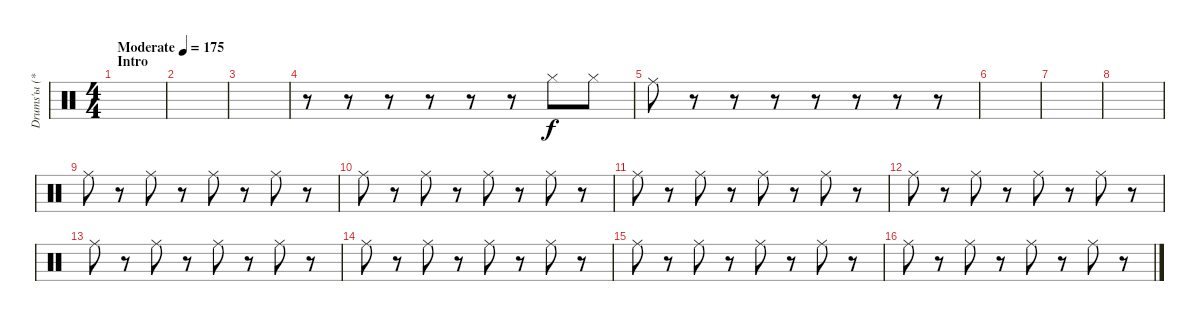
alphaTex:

\track ("Drums'ы (***)" "Drums'ы (*") {instrument percussion}
\staff {score}
\articulation defaults
\ts (4 4)
\section ("" "Intro")
\tempo (175 "Moderate")
\clef neutral
\ks c
|
|
|
r.8 r.8 r.8 r.8 r.8 r.8 "Hi-Hat (closed)".8 "Hi-Hat (closed)".8 |
"Ride (middle)".8 r.8 r.8 r.8 r.8 r.8 r.8 r.8 |
|
|
|
"Ride (middle)".8 r.8 "Ride (middle)".8 r.8 "Ride (middle)".8 r.8 "Ride (middle)".8 r.8 |
"Ride (middle)".8 r.8 "Ride (middle)".8 r.8 "Ride (middle)".8 r.8 "Ride (middle)".8 r.8 |
"Ride (middle)".8 r.8 "Ride (middle)".8 r.8 "Ride (middle)".8 r.8 "Ride (middle)".8 r.8 |
"Ride (middle)".8 r.8 "Ride (middle)".8 r.8 "Ride (middle)".8 r.8 "Ride (middle)".8 r.8 |
"Ride (middle)".8 r.8 "Ride (middle)".8 r.8 "Ride (middle)".8 r.8 "Ride (middle)".8 r.8 |
"Ride (middle)".8 r.8 "Ride (middle)".8 r.8 "Ride (middle)".8 r.8 "Ride (middle)".8 r.8 |
"Ride (middle)".8 r.8 "Ride (middle)".8 r.8 "Ride (middle)".8 r.8 "Ride (middle)".8 r.8 |
"Ride (middle)".8 r.8 "Ride (middle)".8 r.8 "Ride (middle)".8 r.8 "Ride (middle)".8 r.8
